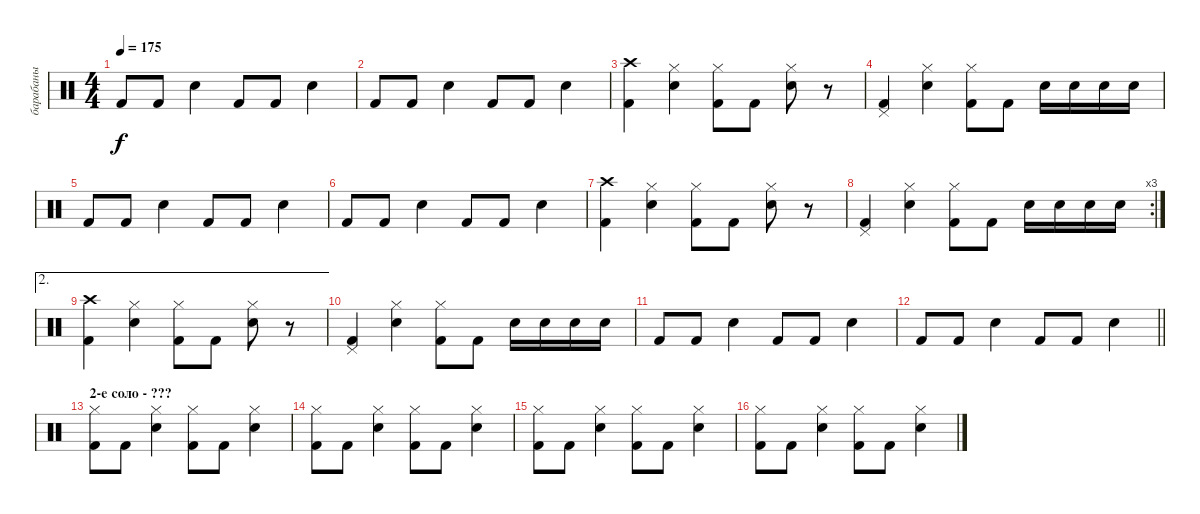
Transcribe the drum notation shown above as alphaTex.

\track ("барабаны" "барабаны") {instrument percussion}
\staff {score}
\articulation defaults
\ts (4 4)
\tempo 175
\clef neutral
\ks c "Kick (hit) 2".8{dy f} "Kick (hit) 2".8 "Snare (hit) 2".4 "Kick (hit) 2".8 "Kick (hit) 2".8 "Snare (hit) 2".4
|
"Kick (hit) 2".8 "Kick (hit) 2".8 "Snare (hit) 2".4 "Kick (hit) 2".8 "Kick (hit) 2".8 "Snare (hit) 2".4 |
("Crash high (hit)" "Kick (hit) 2").4 ("Hi-Hat (closed)" "Snare (hit) 2").4 ("Hi-Hat (closed)" "Kick (hit) 2").8 "Kick (hit) 2".8 ("Hi-Hat (closed)" "Snare (hit) 2").8 r.8 |
("Pedal Hi-Hat (hit)" "Kick (hit) 2").4 ("Hi-Hat (closed)" "Snare (hit) 2").4 ("Hi-Hat (closed)" "Kick (hit) 2").8 "Kick (hit) 2".8 "Snare (hit) 2".16 "Snare (hit) 2".16 "Snare (hit) 2".16 "Snare (hit) 2".16 |
"Kick (hit) 2".8 "Kick (hit) 2".8 "Snare (hit) 2".4 "Kick (hit) 2".8 "Kick (hit) 2".8 "Snare (hit) 2".4 |
"Kick (hit) 2".8 "Kick (hit) 2".8 "Snare (hit) 2".4 "Kick (hit) 2".8 "Kick (hit) 2".8 "Snare (hit) 2".4 |
("Crash high (hit)" "Kick (hit) 2").4 ("Hi-Hat (closed)" "Snare (hit) 2").4 ("Hi-Hat (closed)" "Kick (hit) 2").8 "Kick (hit) 2".8 ("Hi-Hat (closed)" "Snare (hit) 2").8 r.8 |
\rc 3
("Pedal Hi-Hat (hit)" "Kick (hit) 2").4 ("Hi-Hat (closed)" "Snare (hit) 2").4 ("Hi-Hat (closed)" "Kick (hit) 2").8 "Kick (hit) 2".8 "Snare (hit) 2".16 "Snare (hit) 2".16 "Snare (hit) 2".16 "Snare (hit) 2".16 |
\ae 2
("Crash high (hit)" "Kick (hit) 2").4 ("Hi-Hat (closed)" "Snare (hit) 2").4 ("Hi-Hat (closed)" "Kick (hit) 2").8 "Kick (hit) 2".8 ("Hi-Hat (closed)" "Snare (hit) 2").8 r.8 |
("Pedal Hi-Hat (hit)" "Kick (hit) 2").4 ("Hi-Hat (closed)" "Snare (hit) 2").4 ("Hi-Hat (closed)" "Kick (hit) 2").8 "Kick (hit) 2".8 "Snare (hit) 2".16 "Snare (hit) 2".16 "Snare (hit) 2".16 "Snare (hit) 2".16 |
"Kick (hit) 2".8 "Kick (hit) 2".8 "Snare (hit) 2".4 "Kick (hit) 2".8 "Kick (hit) 2".8 "Snare (hit) 2".4 |
\barLineRight lightlight "Kick (hit) 2".8 "Kick (hit) 2".8 "Snare (hit) 2".4 "Kick (hit) 2".8 "Kick (hit) 2".8 "Snare (hit) 2".4
|
\section ("" "2-е соло - ???")
("Hi-Hat (closed)" "Kick (hit) 2").8 "Kick (hit) 2".8 ("Hi-Hat (closed)" "Snare (hit) 2").4 ("Hi-Hat (closed)" "Kick (hit) 2").8 "Kick (hit) 2".8 ("Hi-Hat (closed)" "Snare (hit) 2").4 |
("Hi-Hat (closed)" "Kick (hit) 2").8 "Kick (hit) 2".8 ("Hi-Hat (closed)" "Snare (hit) 2").4 ("Hi-Hat (closed)" "Kick (hit) 2").8 "Kick (hit) 2".8 ("Hi-Hat (closed)" "Snare (hit) 2").4 |
("Hi-Hat (closed)" "Kick (hit) 2").8 "Kick (hit) 2".8 ("Hi-Hat (closed)" "Snare (hit) 2").4 ("Hi-Hat (closed)" "Kick (hit) 2").8 "Kick (hit) 2".8 ("Hi-Hat (closed)" "Snare (hit) 2").4 |
("Hi-Hat (closed)" "Kick (hit) 2").8 "Kick (hit) 2".8 ("Hi-Hat (closed)" "Snare (hit) 2").4 ("Hi-Hat (closed)" "Kick (hit) 2").8 "Kick (hit) 2".8 ("Hi-Hat (closed)" "Snare (hit) 2").4
